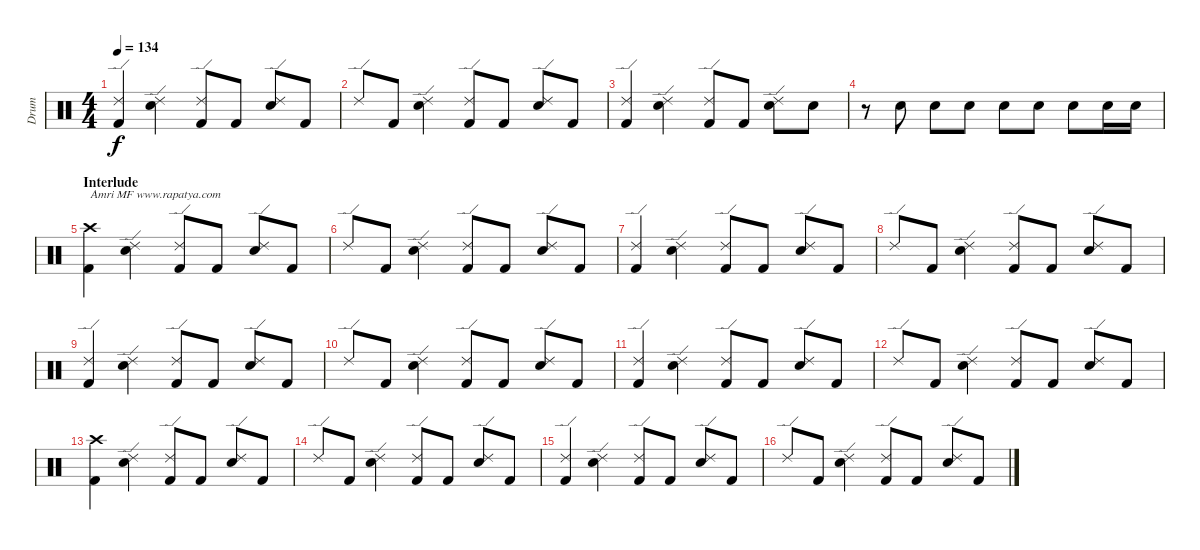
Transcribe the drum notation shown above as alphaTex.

\track ("Drum" "Drum") {instrument percussion}
\staff {score}
\articulation defaults
\ts (4 4)
\tempo 134
\clef neutral
\ks c
("Kick (hit) 2" "Ride (edge) 2").4{dy f} ("Electric Snare (hit)" "Ride (edge) 2").4 ("Ride (edge) 2" "Kick (hit) 2").8 "Kick (hit) 2".8 ("Electric Snare (hit)" "Ride (edge) 2").8 "Kick (hit) 2".8 |
"Ride (edge) 2".8 "Kick (hit) 2".8 ("Electric Snare (hit)" "Ride (edge) 2").4 ("Kick (hit) 2" "Ride (edge) 2").8 "Kick (hit) 2".8 ("Ride (edge) 2" "Electric Snare (hit)").8 "Kick (hit) 2".8 |
("Kick (hit) 2" "Ride (edge) 2").4 ("Electric Snare (hit)" "Ride (edge) 2").4 ("Ride (edge) 2" "Kick (hit) 2").8 "Kick (hit) 2".8 ("Electric Snare (hit)" "Ride (edge) 2").8 "Electric Snare (hit)".8 |
r.8 "Electric Snare (hit)".8 "Electric Snare (hit)".8 "Electric Snare (hit)".8 "Electric Snare (hit)".8 "Electric Snare (hit)".8 "Electric Snare (hit)".8 "Electric Snare (hit)".16 "Electric Snare (hit)".16 |
\section ("" "Interlude")
("Kick (hit) 2" "Crash high (hit)").4{txt "Amri MF www.rapatya.com"} ("Electric Snare (hit)" "Ride (edge) 2").4 ("Ride (edge) 2" "Kick (hit) 2").8 "Kick (hit) 2".8 ("Electric Snare (hit)" "Ride (edge) 2").8 "Kick (hit) 2".8 |
"Ride (edge) 2".8 "Kick (hit) 2".8 ("Electric Snare (hit)" "Ride (edge) 2").4 ("Kick (hit) 2" "Ride (edge) 2").8 "Kick (hit) 2".8 ("Ride (edge) 2" "Electric Snare (hit)").8 "Kick (hit) 2".8 |
("Kick (hit) 2" "Ride (edge) 2").4 ("Electric Snare (hit)" "Ride (edge) 2").4 ("Ride (edge) 2" "Kick (hit) 2").8 "Kick (hit) 2".8 ("Electric Snare (hit)" "Ride (edge) 2").8 "Kick (hit) 2".8 |
"Ride (edge) 2".8 "Kick (hit) 2".8 ("Electric Snare (hit)" "Ride (edge) 2").4 ("Kick (hit) 2" "Ride (edge) 2").8 "Kick (hit) 2".8 ("Ride (edge) 2" "Electric Snare (hit)").8 "Kick (hit) 2".8 |
("Kick (hit) 2" "Ride (edge) 2").4 ("Electric Snare (hit)" "Ride (edge) 2").4 ("Ride (edge) 2" "Kick (hit) 2").8 "Kick (hit) 2".8 ("Electric Snare (hit)" "Ride (edge) 2").8 "Kick (hit) 2".8 |
"Ride (edge) 2".8 "Kick (hit) 2".8 ("Electric Snare (hit)" "Ride (edge) 2").4 ("Kick (hit) 2" "Ride (edge) 2").8 "Kick (hit) 2".8 ("Ride (edge) 2" "Electric Snare (hit)").8 "Kick (hit) 2".8 |
("Kick (hit) 2" "Ride (edge) 2").4 ("Electric Snare (hit)" "Ride (edge) 2").4 ("Ride (edge) 2" "Kick (hit) 2").8 "Kick (hit) 2".8 ("Electric Snare (hit)" "Ride (edge) 2").8 "Kick (hit) 2".8 |
"Ride (edge) 2".8 "Kick (hit) 2".8 ("Electric Snare (hit)" "Ride (edge) 2").4 ("Kick (hit) 2" "Ride (edge) 2").8 "Kick (hit) 2".8 ("Ride (edge) 2" "Electric Snare (hit)").8 "Kick (hit) 2".8 |
("Kick (hit) 2" "Crash high (hit)").4 ("Electric Snare (hit)" "Ride (edge) 2").4 ("Ride (edge) 2" "Kick (hit) 2").8 "Kick (hit) 2".8 ("Electric Snare (hit)" "Ride (edge) 2").8 "Kick (hit) 2".8 |
"Ride (edge) 2".8 "Kick (hit) 2".8 ("Electric Snare (hit)" "Ride (edge) 2").4 ("Kick (hit) 2" "Ride (edge) 2").8 "Kick (hit) 2".8 ("Ride (edge) 2" "Electric Snare (hit)").8 "Kick (hit) 2".8 |
("Kick (hit) 2" "Ride (edge) 2").4 ("Electric Snare (hit)" "Ride (edge) 2").4 ("Ride (edge) 2" "Kick (hit) 2").8 "Kick (hit) 2".8 ("Electric Snare (hit)" "Ride (edge) 2").8 "Kick (hit) 2".8 |
"Ride (edge) 2".8 "Kick (hit) 2".8 ("Electric Snare (hit)" "Ride (edge) 2").4 ("Kick (hit) 2" "Ride (edge) 2").8 "Kick (hit) 2".8 ("Ride (edge) 2" "Electric Snare (hit)").8 "Kick (hit) 2".8
